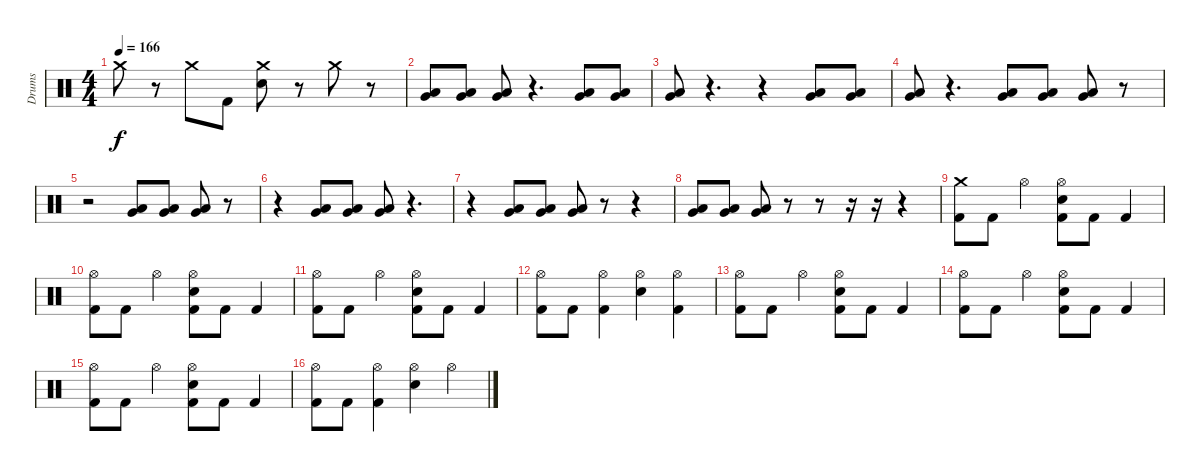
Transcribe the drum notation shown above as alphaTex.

\track ("Drums" "Drums") {instrument percussion}
\staff {score}
\articulation defaults
\ts (4 4)
\tempo 166
\clef neutral
\ks c "Crash medium (hit)".8{dy f}
r.8 "Crash medium (hit)".8 "Kick (hit) 2".8 ("Crash medium (hit)" "Snare (hit) 2").8 r.8 "Crash medium (hit)".8 r.8 |
("Low Tom (hit)" "Very Low Tom (hit)").8 ("Low Tom (hit)" "Very Low Tom (hit)").8 ("Low Tom (hit)" "Very Low Tom (hit)").8 r.4{d} ("Low Tom (hit)" "Very Low Tom (hit)").8 ("Low Tom (hit)" "Very Low Tom (hit)").8 |
("Low Tom (hit)" "Very Low Tom (hit)").8 r.4{d} r.4 ("Low Tom (hit)" "Very Low Tom (hit)").8 ("Low Tom (hit)" "Very Low Tom (hit)").8 |
("Low Tom (hit)" "Very Low Tom (hit)").8 r.4{d} ("Low Tom (hit)" "Very Low Tom (hit)").8 ("Low Tom (hit)" "Very Low Tom (hit)").8 ("Low Tom (hit)" "Very Low Tom (hit)").8 r.8 |
r.2 ("Low Tom (hit)" "Very Low Tom (hit)").8 ("Low Tom (hit)" "Very Low Tom (hit)").8 ("Low Tom (hit)" "Very Low Tom (hit)").8 r.8 |
r.4 ("Low Tom (hit)" "Very Low Tom (hit)").8 ("Low Tom (hit)" "Very Low Tom (hit)").8 ("Low Tom (hit)" "Very Low Tom (hit)").8 r.4{d} |
r.4 ("Low Tom (hit)" "Very Low Tom (hit)").8 ("Low Tom (hit)" "Very Low Tom (hit)").8 ("Low Tom (hit)" "Very Low Tom (hit)").8 r.8 r.4 |
("Low Tom (hit)" "Very Low Tom (hit)").8 ("Low Tom (hit)" "Very Low Tom (hit)").8 ("Low Tom (hit)" "Very Low Tom (hit)").8 r.8 r.8 r.16 r.16 r.4 |
("Crash medium (hit)" "Kick (hit) 2").8 "Kick (hit) 2".8 "Hi-Hat (open)".4 ("Hi-Hat (open)" "Snare (hit) 2" "Kick (hit) 2").8 "Kick (hit) 2".8 "Kick (hit) 2".4 |
("Hi-Hat (open)" "Kick (hit) 2").8 "Kick (hit) 2".8 "Hi-Hat (open)".4 ("Hi-Hat (open)" "Snare (hit) 2" "Kick (hit) 2").8 "Kick (hit) 2".8 "Kick (hit) 2".4 |
("Hi-Hat (open)" "Kick (hit) 2").8 "Kick (hit) 2".8 "Hi-Hat (open)".4 ("Hi-Hat (open)" "Snare (hit) 2" "Kick (hit) 2").8 "Kick (hit) 2".8 "Kick (hit) 2".4 |
("Hi-Hat (open)" "Kick (hit) 2").8 "Kick (hit) 2".8 ("Hi-Hat (open)" "Kick (hit) 2").4 ("Hi-Hat (open)" "Snare (hit) 2").4 ("Hi-Hat (open)" "Kick (hit) 2").4 |
("Hi-Hat (open)" "Kick (hit) 2").8 "Kick (hit) 2".8 "Hi-Hat (open)".4 ("Hi-Hat (open)" "Snare (hit) 2" "Kick (hit) 2").8 "Kick (hit) 2".8 "Kick (hit) 2".4 |
("Hi-Hat (open)" "Kick (hit) 2").8 "Kick (hit) 2".8 "Hi-Hat (open)".4 ("Hi-Hat (open)" "Snare (hit) 2" "Kick (hit) 2").8 "Kick (hit) 2".8 "Kick (hit) 2".4 |
("Hi-Hat (open)" "Kick (hit) 2").8 "Kick (hit) 2".8 "Hi-Hat (open)".4 ("Hi-Hat (open)" "Snare (hit) 2" "Kick (hit) 2").8 "Kick (hit) 2".8 "Kick (hit) 2".4 |
("Hi-Hat (open)" "Kick (hit) 2").8 "Kick (hit) 2".8 ("Hi-Hat (open)" "Kick (hit) 2").4 ("Hi-Hat (open)" "Snare (hit) 2").4 "Hi-Hat (open)".4
